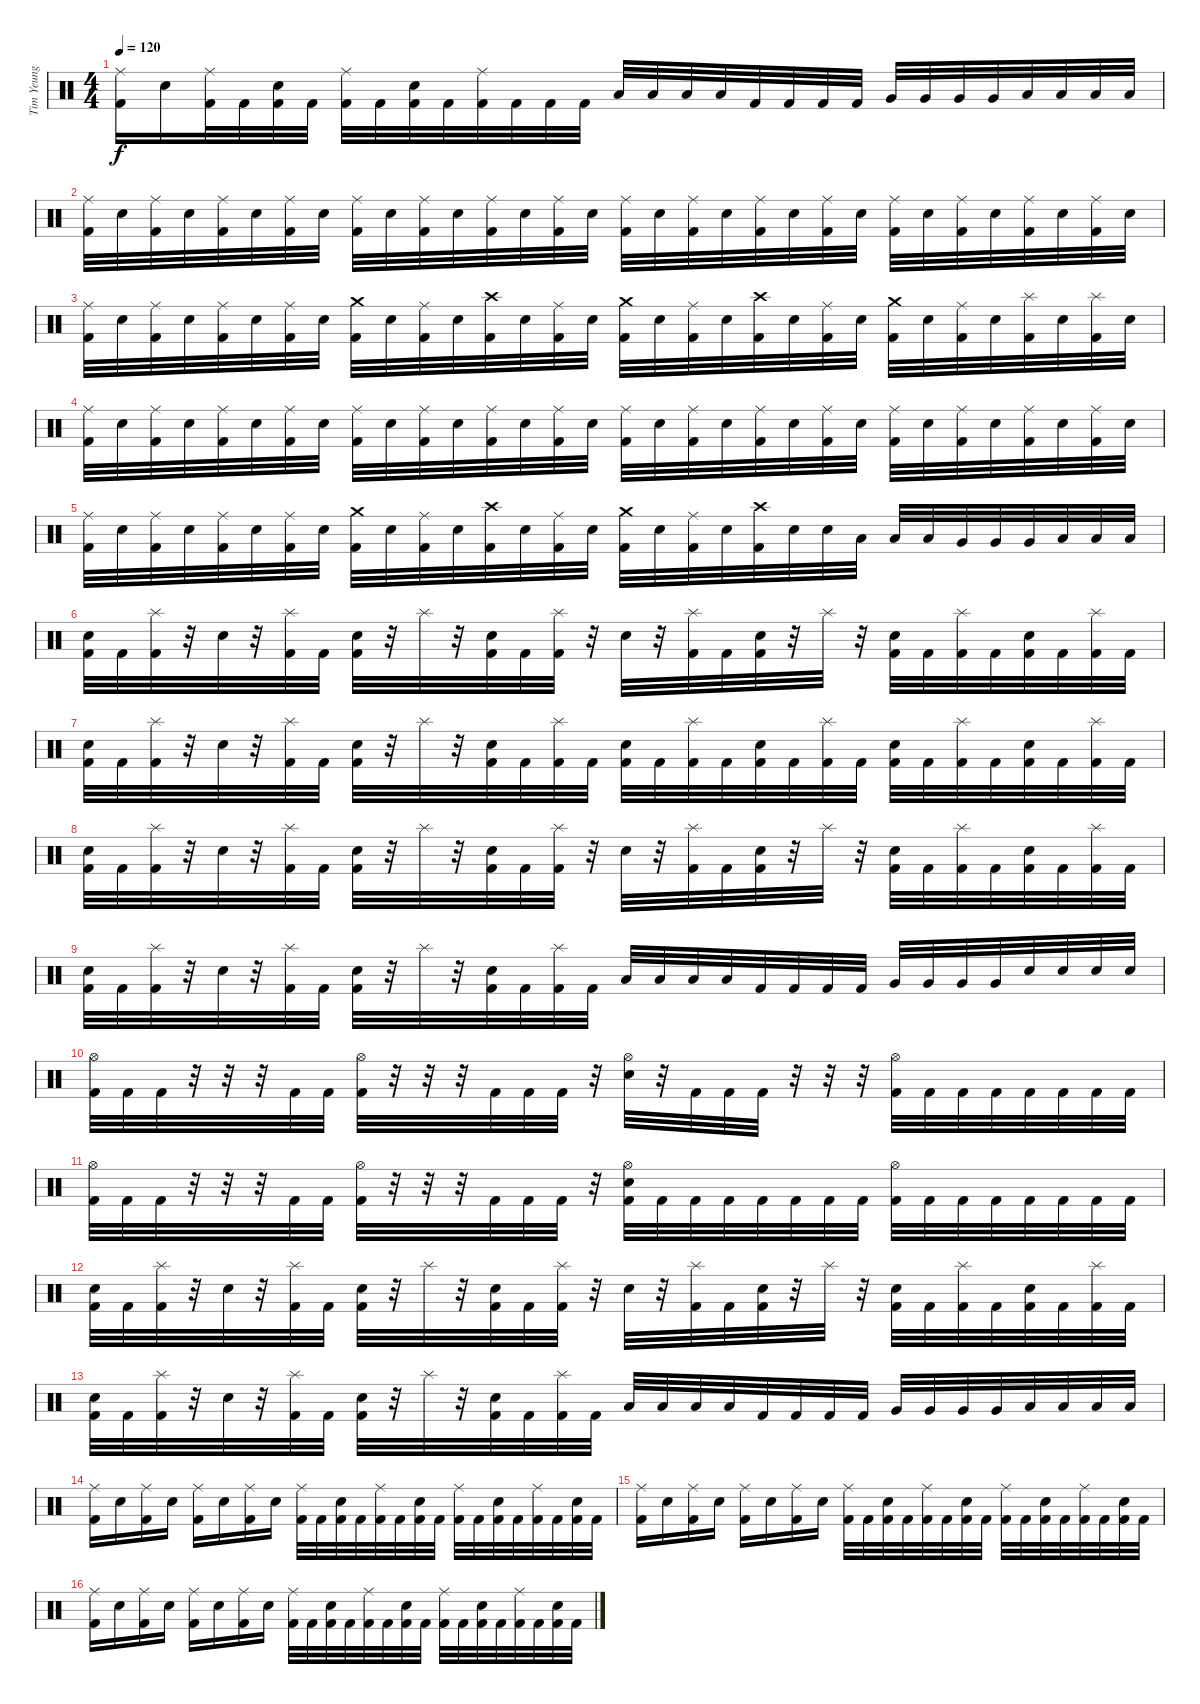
\track ("Tim Yeung" "Tim Yeung") {instrument percussion}
\staff {score}
\articulation defaults
\ts (4 4)
\tempo 120
\clef neutral
\ks c
("Ride (middle)" "Kick (hit) 2").16{dy f} "Electric Snare (hit)".16 ("Ride (middle)" "Kick (hit) 2").32 "Kick (hit) 2".32 ("Electric Snare (hit)" "Kick (hit) 2").32 "Kick (hit) 2".32 ("Ride (middle)" "Kick (hit) 2").32 "Kick (hit) 2".32 ("Electric Snare (hit)" "Kick (hit) 2").32 "Kick (hit) 2".32 ("Ride (middle)" "Kick (hit) 2").32 "Kick (hit) 2".32 "Kick (hit) 2".32 "Kick (hit) 2".32 "Low Tom (hit)".32 "Low Tom (hit)".32 "Low Tom (hit)".32 "Low Tom (hit)".32 "Kick (hit) 2".32 "Kick (hit) 2".32 "Kick (hit) 2".32 "Kick (hit) 2".32 "Very Low Tom (hit)".32 "Very Low Tom (hit)".32 "Very Low Tom (hit)".32 "Very Low Tom (hit)".32 "Low Floor Tom (hit)".32 "Low Floor Tom (hit)".32 "Low Floor Tom (hit)".32 "Low Floor Tom (hit)".32 |
("Ride (middle)" "Kick (hit) 2").32 "Electric Snare (hit)".32 ("Ride (middle)" "Kick (hit) 2").32 "Electric Snare (hit)".32 ("Ride (middle)" "Kick (hit) 2").32 "Electric Snare (hit)".32 ("Ride (middle)" "Kick (hit) 2").32 "Electric Snare (hit)".32 ("Ride (middle)" "Kick (hit) 2").32 "Electric Snare (hit)".32 ("Ride (middle)" "Kick (hit) 2").32 "Electric Snare (hit)".32 ("Ride (middle)" "Kick (hit) 2").32 "Electric Snare (hit)".32 ("Ride (middle)" "Kick (hit) 2").32 "Electric Snare (hit)".32 ("Ride (middle)" "Kick (hit) 2").32 "Electric Snare (hit)".32 ("Ride (middle)" "Kick (hit) 2").32 "Electric Snare (hit)".32 ("Ride (middle)" "Kick (hit) 2").32 "Electric Snare (hit)".32 ("Ride (middle)" "Kick (hit) 2").32 "Electric Snare (hit)".32 ("Ride (middle)" "Kick (hit) 2").32 "Electric Snare (hit)".32 ("Ride (middle)" "Kick (hit) 2").32 "Electric Snare (hit)".32 ("Ride (middle)" "Kick (hit) 2").32 "Electric Snare (hit)".32 ("Ride (middle)" "Kick (hit) 2").32 "Electric Snare (hit)".32 |
("Ride (middle)" "Kick (hit) 2").32 "Electric Snare (hit)".32 ("Ride (middle)" "Kick (hit) 2").32 "Electric Snare (hit)".32 ("Ride (middle)" "Kick (hit) 2").32 "Electric Snare (hit)".32 ("Ride (middle)" "Kick (hit) 2").32 "Electric Snare (hit)".32 ("Crash medium (hit)" "Kick (hit) 2").32 "Electric Snare (hit)".32 ("Ride (middle)" "Kick (hit) 2").32 "Electric Snare (hit)".32 ("Crash high (hit)" "Kick (hit) 2").32 "Electric Snare (hit)".32 ("Ride (middle)" "Kick (hit) 2").32 "Electric Snare (hit)".32 ("Crash medium (hit)" "Kick (hit) 2").32 "Electric Snare (hit)".32 ("Ride (middle)" "Kick (hit) 2").32 "Electric Snare (hit)".32 ("Crash high (hit)" "Kick (hit) 2").32 "Electric Snare (hit)".32 ("Ride (middle)" "Kick (hit) 2").32 "Electric Snare (hit)".32 ("Crash medium (hit)" "Kick (hit) 2").32 "Electric Snare (hit)".32 ("Ride (middle)" "Kick (hit) 2").32 "Electric Snare (hit)".32 ("Splash (hit)" "Kick (hit) 2").32 "Electric Snare (hit)".32 ("Splash (hit)" "Kick (hit) 2").32 "Electric Snare (hit)".32 |
("Ride (middle)" "Kick (hit) 2").32 "Electric Snare (hit)".32 ("Ride (middle)" "Kick (hit) 2").32 "Electric Snare (hit)".32 ("Ride (middle)" "Kick (hit) 2").32 "Electric Snare (hit)".32 ("Ride (middle)" "Kick (hit) 2").32 "Electric Snare (hit)".32 ("Ride (middle)" "Kick (hit) 2").32 "Electric Snare (hit)".32 ("Ride (middle)" "Kick (hit) 2").32 "Electric Snare (hit)".32 ("Ride (middle)" "Kick (hit) 2").32 "Electric Snare (hit)".32 ("Ride (middle)" "Kick (hit) 2").32 "Electric Snare (hit)".32 ("Ride (middle)" "Kick (hit) 2").32 "Electric Snare (hit)".32 ("Ride (middle)" "Kick (hit) 2").32 "Electric Snare (hit)".32 ("Ride (middle)" "Kick (hit) 2").32 "Electric Snare (hit)".32 ("Ride (middle)" "Kick (hit) 2").32 "Electric Snare (hit)".32 ("Ride (middle)" "Kick (hit) 2").32 "Electric Snare (hit)".32 ("Ride (middle)" "Kick (hit) 2").32 "Electric Snare (hit)".32 ("Ride (middle)" "Kick (hit) 2").32 "Electric Snare (hit)".32 ("Ride (middle)" "Kick (hit) 2").32 "Electric Snare (hit)".32 |
("Ride (middle)" "Kick (hit) 2").32 "Electric Snare (hit)".32 ("Ride (middle)" "Kick (hit) 2").32 "Electric Snare (hit)".32 ("Ride (middle)" "Kick (hit) 2").32 "Electric Snare (hit)".32 ("Ride (middle)" "Kick (hit) 2").32 "Electric Snare (hit)".32 ("Crash medium (hit)" "Kick (hit) 2").32 "Electric Snare (hit)".32 ("Ride (middle)" "Kick (hit) 2").32 "Electric Snare (hit)".32 ("Crash high (hit)" "Kick (hit) 2").32 "Electric Snare (hit)".32 ("Ride (middle)" "Kick (hit) 2").32 "Electric Snare (hit)".32 ("Crash medium (hit)" "Kick (hit) 2").32 "Electric Snare (hit)".32 ("Ride (middle)" "Kick (hit) 2").32 "Electric Snare (hit)".32 ("Crash high (hit)" "Kick (hit) 2").32 "Electric Snare (hit)".32 "Electric Snare (hit)".32 "Low Tom (hit)".32 "Low Tom (hit)".32 "Low Tom (hit)".32 "Very Low Tom (hit)".32 "Very Low Tom (hit)".32 "Very Low Tom (hit)".32 "Low Floor Tom (hit)".32 "Low Floor Tom (hit)".32 "Low Floor Tom (hit)".32 |
("Electric Snare (hit)" "Kick (hit) 2").32 "Kick (hit) 2".32 ("Splash (hit)" "Kick (hit) 2").32 r.32 "Electric Snare (hit)".32 r.32 ("Splash (hit)" "Kick (hit) 2").32 "Kick (hit) 2".32 ("Electric Snare (hit)" "Kick (hit) 2").32 r.32 "Splash (hit)".32 r.32 ("Electric Snare (hit)" "Kick (hit) 2").32 "Kick (hit) 2".32 ("Splash (hit)" "Kick (hit) 2").32 r.32 "Electric Snare (hit)".32 r.32 ("Splash (hit)" "Kick (hit) 2").32 "Kick (hit) 2".32 ("Electric Snare (hit)" "Kick (hit) 2").32 r.32 "Splash (hit)".32 r.32 ("Electric Snare (hit)" "Kick (hit) 2").32 "Kick (hit) 2".32 ("Splash (hit)" "Kick (hit) 2").32 "Kick (hit) 2".32 ("Electric Snare (hit)" "Kick (hit) 2").32 "Kick (hit) 2".32 ("Splash (hit)" "Kick (hit) 2").32 "Kick (hit) 2".32 |
("Electric Snare (hit)" "Kick (hit) 2").32 "Kick (hit) 2".32 ("Splash (hit)" "Kick (hit) 2").32 r.32 "Electric Snare (hit)".32 r.32 ("Splash (hit)" "Kick (hit) 2").32 "Kick (hit) 2".32 ("Electric Snare (hit)" "Kick (hit) 2").32 r.32 "Splash (hit)".32 r.32 ("Electric Snare (hit)" "Kick (hit) 2").32 "Kick (hit) 2".32 ("Splash (hit)" "Kick (hit) 2").32 "Kick (hit) 2".32 ("Electric Snare (hit)" "Kick (hit) 2").32 "Kick (hit) 2".32 ("Splash (hit)" "Kick (hit) 2").32 "Kick (hit) 2".32 ("Electric Snare (hit)" "Kick (hit) 2").32 "Kick (hit) 2".32 ("Splash (hit)" "Kick (hit) 2").32 "Kick (hit) 2".32 ("Electric Snare (hit)" "Kick (hit) 2").32 "Kick (hit) 2".32 ("Splash (hit)" "Kick (hit) 2").32 "Kick (hit) 2".32 ("Electric Snare (hit)" "Kick (hit) 2").32 "Kick (hit) 2".32 ("Splash (hit)" "Kick (hit) 2").32 "Kick (hit) 2".32 |
("Electric Snare (hit)" "Kick (hit) 2").32 "Kick (hit) 2".32 ("Splash (hit)" "Kick (hit) 2").32 r.32 "Electric Snare (hit)".32 r.32 ("Splash (hit)" "Kick (hit) 2").32 "Kick (hit) 2".32 ("Electric Snare (hit)" "Kick (hit) 2").32 r.32 "Splash (hit)".32 r.32 ("Electric Snare (hit)" "Kick (hit) 2").32 "Kick (hit) 2".32 ("Splash (hit)" "Kick (hit) 2").32 r.32 "Electric Snare (hit)".32 r.32 ("Splash (hit)" "Kick (hit) 2").32 "Kick (hit) 2".32 ("Electric Snare (hit)" "Kick (hit) 2").32 r.32 "Splash (hit)".32 r.32 ("Electric Snare (hit)" "Kick (hit) 2").32 "Kick (hit) 2".32 ("Splash (hit)" "Kick (hit) 2").32 "Kick (hit) 2".32 ("Electric Snare (hit)" "Kick (hit) 2").32 "Kick (hit) 2".32 ("Splash (hit)" "Kick (hit) 2").32 "Kick (hit) 2".32 |
("Electric Snare (hit)" "Kick (hit) 2").32 "Kick (hit) 2".32 ("Splash (hit)" "Kick (hit) 2").32 r.32 "Electric Snare (hit)".32 r.32 ("Splash (hit)" "Kick (hit) 2").32 "Kick (hit) 2".32 ("Electric Snare (hit)" "Kick (hit) 2").32 r.32 "Splash (hit)".32 r.32 ("Electric Snare (hit)" "Kick (hit) 2").32 "Kick (hit) 2".32 ("Splash (hit)" "Kick (hit) 2").32 "Kick (hit) 2".32 "Low Tom (hit)".32 "Low Tom (hit)".32 "Low Tom (hit)".32 "Low Tom (hit)".32 "Kick (hit) 2".32 "Kick (hit) 2".32 "Kick (hit) 2".32 "Kick (hit) 2".32 "Very Low Tom (hit)".32 "Very Low Tom (hit)".32 "Very Low Tom (hit)".32 "Very Low Tom (hit)".32 "Electric Snare (hit)".32 "Electric Snare (hit)".32 "Electric Snare (hit)".32 "Electric Snare (hit)".32 |
("Hi-Hat (open)" "Kick (hit) 2").32 "Kick (hit) 2".32 "Kick (hit) 2".32 r.32 r.32 r.32 "Kick (hit) 2".32 "Kick (hit) 2".32 ("Hi-Hat (open)" "Kick (hit) 2").32 r.32 r.32 r.32 "Kick (hit) 2".32 "Kick (hit) 2".32 "Kick (hit) 2".32 r.32 ("Hi-Hat (open)" "Electric Snare (hit)").32 r.32 "Kick (hit) 2".32 "Kick (hit) 2".32 "Kick (hit) 2".32 r.32 r.32 r.32 ("Hi-Hat (open)" "Kick (hit) 2").32 "Kick (hit) 2".32 "Kick (hit) 2".32 "Kick (hit) 2".32 "Kick (hit) 2".32 "Kick (hit) 2".32 "Kick (hit) 2".32 "Kick (hit) 2".32 |
("Hi-Hat (open)" "Kick (hit) 2").32 "Kick (hit) 2".32 "Kick (hit) 2".32 r.32 r.32 r.32 "Kick (hit) 2".32 "Kick (hit) 2".32 ("Hi-Hat (open)" "Kick (hit) 2").32 r.32 r.32 r.32 "Kick (hit) 2".32 "Kick (hit) 2".32 "Kick (hit) 2".32 r.32 ("Hi-Hat (open)" "Electric Snare (hit)" "Kick (hit) 2").32 "Kick (hit) 2".32 "Kick (hit) 2".32 "Kick (hit) 2".32 "Kick (hit) 2".32 "Kick (hit) 2".32 "Kick (hit) 2".32 "Kick (hit) 2".32 ("Hi-Hat (open)" "Kick (hit) 2").32 "Kick (hit) 2".32 "Kick (hit) 2".32 "Kick (hit) 2".32 "Kick (hit) 2".32 "Kick (hit) 2".32 "Kick (hit) 2".32 "Kick (hit) 2".32 |
("Electric Snare (hit)" "Kick (hit) 2").32 "Kick (hit) 2".32 ("Splash (hit)" "Kick (hit) 2").32 r.32 "Electric Snare (hit)".32 r.32 ("Splash (hit)" "Kick (hit) 2").32 "Kick (hit) 2".32 ("Electric Snare (hit)" "Kick (hit) 2").32 r.32 "Splash (hit)".32 r.32 ("Electric Snare (hit)" "Kick (hit) 2").32 "Kick (hit) 2".32 ("Splash (hit)" "Kick (hit) 2").32 r.32 "Electric Snare (hit)".32 r.32 ("Splash (hit)" "Kick (hit) 2").32 "Kick (hit) 2".32 ("Electric Snare (hit)" "Kick (hit) 2").32 r.32 "Splash (hit)".32 r.32 ("Electric Snare (hit)" "Kick (hit) 2").32 "Kick (hit) 2".32 ("Splash (hit)" "Kick (hit) 2").32 "Kick (hit) 2".32 ("Electric Snare (hit)" "Kick (hit) 2").32 "Kick (hit) 2".32 ("Splash (hit)" "Kick (hit) 2").32 "Kick (hit) 2".32 |
("Electric Snare (hit)" "Kick (hit) 2").32 "Kick (hit) 2".32 ("Splash (hit)" "Kick (hit) 2").32 r.32 "Electric Snare (hit)".32 r.32 ("Splash (hit)" "Kick (hit) 2").32 "Kick (hit) 2".32 ("Electric Snare (hit)" "Kick (hit) 2").32 r.32 "Splash (hit)".32 r.32 ("Electric Snare (hit)" "Kick (hit) 2").32 "Kick (hit) 2".32 ("Splash (hit)" "Kick (hit) 2").32 "Kick (hit) 2".32 "Low Tom (hit)".32 "Low Tom (hit)".32 "Low Tom (hit)".32 "Low Tom (hit)".32 "Kick (hit) 2".32 "Kick (hit) 2".32 "Kick (hit) 2".32 "Kick (hit) 2".32 "Very Low Tom (hit)".32 "Very Low Tom (hit)".32 "Very Low Tom (hit)".32 "Very Low Tom (hit)".32 "Low Floor Tom (hit)".32 "Low Floor Tom (hit)".32 "Low Floor Tom (hit)".32 "Low Floor Tom (hit)".32 |
("Ride (middle)" "Kick (hit) 2").16 "Electric Snare (hit)".16 ("Ride (middle)" "Kick (hit) 2").16 "Electric Snare (hit)".16 ("Ride (middle)" "Kick (hit) 2").16 "Electric Snare (hit)".16 ("Ride (middle)" "Kick (hit) 2").16 "Electric Snare (hit)".16 ("Ride (middle)" "Kick (hit) 2").32 "Kick (hit) 2".32 ("Electric Snare (hit)" "Kick (hit) 2").32 "Kick (hit) 2".32 ("Ride (middle)" "Kick (hit) 2").32 "Kick (hit) 2".32 ("Electric Snare (hit)" "Kick (hit) 2").32 "Kick (hit) 2".32 ("Ride (middle)" "Kick (hit) 2").32 "Kick (hit) 2".32 ("Electric Snare (hit)" "Kick (hit) 2").32 "Kick (hit) 2".32 ("Ride (middle)" "Kick (hit) 2").32 "Kick (hit) 2".32 ("Electric Snare (hit)" "Kick (hit) 2").32 "Kick (hit) 2".32 |
("Ride (middle)" "Kick (hit) 2").16 "Electric Snare (hit)".16 ("Ride (middle)" "Kick (hit) 2").16 "Electric Snare (hit)".16 ("Ride (middle)" "Kick (hit) 2").16 "Electric Snare (hit)".16 ("Ride (middle)" "Kick (hit) 2").16 "Electric Snare (hit)".16 ("Ride (middle)" "Kick (hit) 2").32 "Kick (hit) 2".32 ("Electric Snare (hit)" "Kick (hit) 2").32 "Kick (hit) 2".32 ("Ride (middle)" "Kick (hit) 2").32 "Kick (hit) 2".32 ("Electric Snare (hit)" "Kick (hit) 2").32 "Kick (hit) 2".32 ("Ride (middle)" "Kick (hit) 2").32 "Kick (hit) 2".32 ("Electric Snare (hit)" "Kick (hit) 2").32 "Kick (hit) 2".32 ("Ride (middle)" "Kick (hit) 2").32 "Kick (hit) 2".32 ("Electric Snare (hit)" "Kick (hit) 2").32 "Kick (hit) 2".32 |
("Ride (middle)" "Kick (hit) 2").16 "Electric Snare (hit)".16 ("Ride (middle)" "Kick (hit) 2").16 "Electric Snare (hit)".16 ("Ride (middle)" "Kick (hit) 2").16 "Electric Snare (hit)".16 ("Ride (middle)" "Kick (hit) 2").16 "Electric Snare (hit)".16 ("Ride (middle)" "Kick (hit) 2").32 "Kick (hit) 2".32 ("Electric Snare (hit)" "Kick (hit) 2").32 "Kick (hit) 2".32 ("Ride (middle)" "Kick (hit) 2").32 "Kick (hit) 2".32 ("Electric Snare (hit)" "Kick (hit) 2").32 "Kick (hit) 2".32 ("Ride (middle)" "Kick (hit) 2").32 "Kick (hit) 2".32 ("Electric Snare (hit)" "Kick (hit) 2").32 "Kick (hit) 2".32 ("Ride (middle)" "Kick (hit) 2").32 "Kick (hit) 2".32 ("Electric Snare (hit)" "Kick (hit) 2").32 "Kick (hit) 2".32
